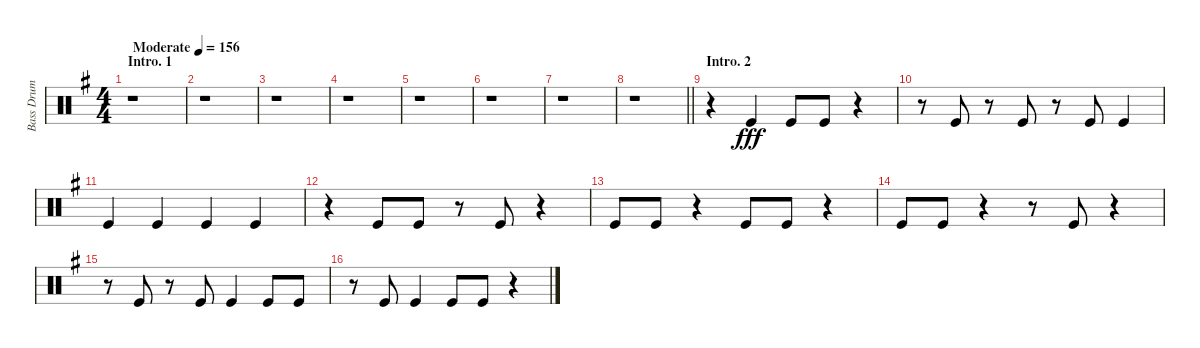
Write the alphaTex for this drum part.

\track ("Bass Drum" "Bass Drum") {instrument percussion}
\staff {score}
\articulation defaults
\ts (4 4)
\section ("" "Intro. 1")
\tempo (156 "Moderate")
\clef neutral
\ks g
r.1{dy fff} |
r.1 |
r.1 |
r.1 |
r.1 |
r.1 |
r.1 |
\barLineRight lightlight
r.1 |
\section ("" "Intro. 2")
r.4 "Kick (hit)".4 "Kick (hit)".8 "Kick (hit)".8 r.4 |
r.8 "Kick (hit)".8 r.8 "Kick (hit)".8 r.8 "Kick (hit)".8 "Kick (hit)".4 |
"Kick (hit)".4 "Kick (hit)".4 "Kick (hit)".4 "Kick (hit)".4 |
r.4 "Kick (hit)".8 "Kick (hit)".8 r.8 "Kick (hit)".8 r.4 |
"Kick (hit)".8 "Kick (hit)".8 r.4 "Kick (hit)".8 "Kick (hit)".8 r.4 |
"Kick (hit)".8 "Kick (hit)".8 r.4 r.8 "Kick (hit)".8 r.4 |
r.8 "Kick (hit)".8 r.8 "Kick (hit)".8 "Kick (hit)".4 "Kick (hit)".8 "Kick (hit)".8 |
r.8 "Kick (hit)".8 "Kick (hit)".4 "Kick (hit)".8 "Kick (hit)".8 r.4
